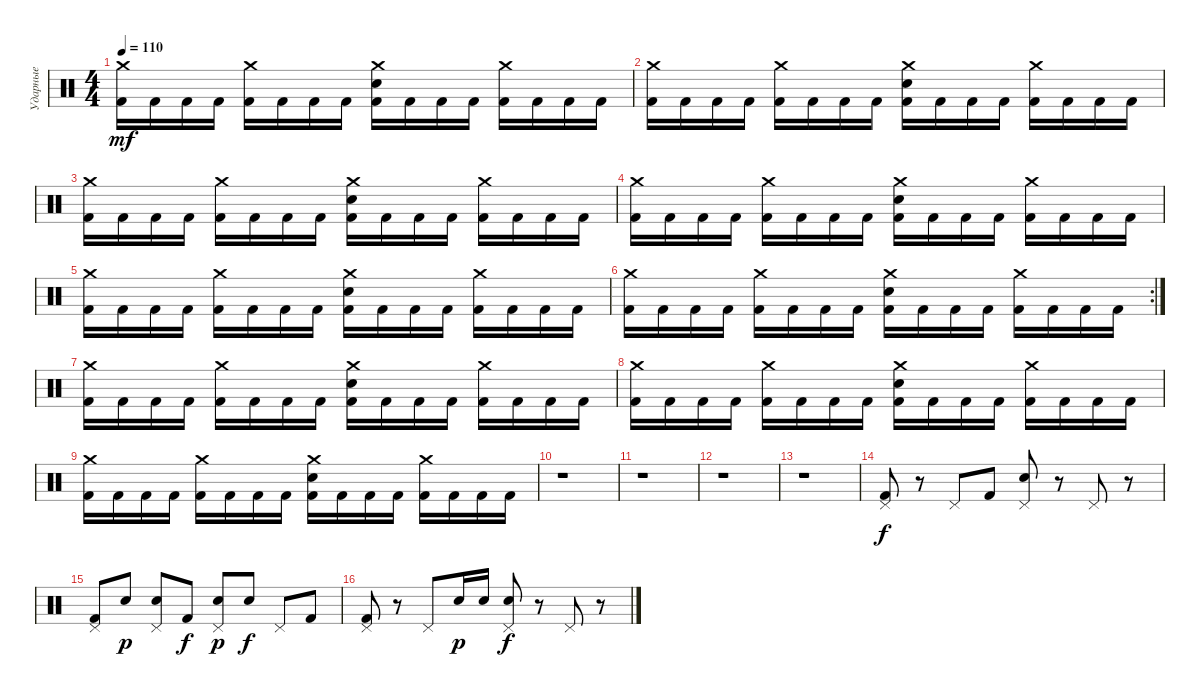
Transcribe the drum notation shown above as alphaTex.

\track ("Ударные" "Ударные") {instrument percussion}
\staff {score}
\articulation defaults
\ts (4 4)
\tempo 110
\clef neutral
\ks c
("Crash medium (hit)" "Kick (hit) 2").16{dy mf} "Kick (hit) 2".16 "Kick (hit) 2".16 "Kick (hit) 2".16 ("Crash medium (hit)" "Kick (hit) 2").16 "Kick (hit) 2".16 "Kick (hit) 2".16 "Kick (hit) 2".16 ("Crash medium (hit)" "Electric Snare (hit)" "Kick (hit) 2").16 "Kick (hit) 2".16 "Kick (hit) 2".16 "Kick (hit) 2".16 ("Crash medium (hit)" "Kick (hit) 2").16 "Kick (hit) 2".16 "Kick (hit) 2".16 "Kick (hit) 2".16 |
("Crash medium (hit)" "Kick (hit) 2").16 "Kick (hit) 2".16 "Kick (hit) 2".16 "Kick (hit) 2".16 ("Crash medium (hit)" "Kick (hit) 2").16 "Kick (hit) 2".16 "Kick (hit) 2".16 "Kick (hit) 2".16 ("Crash medium (hit)" "Electric Snare (hit)" "Kick (hit) 2").16 "Kick (hit) 2".16 "Kick (hit) 2".16 "Kick (hit) 2".16 ("Crash medium (hit)" "Kick (hit) 2").16 "Kick (hit) 2".16 "Kick (hit) 2".16 "Kick (hit) 2".16 |
("Crash medium (hit)" "Kick (hit) 2").16 "Kick (hit) 2".16 "Kick (hit) 2".16 "Kick (hit) 2".16 ("Crash medium (hit)" "Kick (hit) 2").16 "Kick (hit) 2".16 "Kick (hit) 2".16 "Kick (hit) 2".16 ("Crash medium (hit)" "Electric Snare (hit)" "Kick (hit) 2").16 "Kick (hit) 2".16 "Kick (hit) 2".16 "Kick (hit) 2".16 ("Crash medium (hit)" "Kick (hit) 2").16 "Kick (hit) 2".16 "Kick (hit) 2".16 "Kick (hit) 2".16 |
("Crash medium (hit)" "Kick (hit) 2").16 "Kick (hit) 2".16 "Kick (hit) 2".16 "Kick (hit) 2".16 ("Crash medium (hit)" "Kick (hit) 2").16 "Kick (hit) 2".16 "Kick (hit) 2".16 "Kick (hit) 2".16 ("Crash medium (hit)" "Electric Snare (hit)" "Kick (hit) 2").16 "Kick (hit) 2".16 "Kick (hit) 2".16 "Kick (hit) 2".16 ("Crash medium (hit)" "Kick (hit) 2").16 "Kick (hit) 2".16 "Kick (hit) 2".16 "Kick (hit) 2".16 |
("Crash medium (hit)" "Kick (hit) 2").16 "Kick (hit) 2".16 "Kick (hit) 2".16 "Kick (hit) 2".16 ("Crash medium (hit)" "Kick (hit) 2").16 "Kick (hit) 2".16 "Kick (hit) 2".16 "Kick (hit) 2".16 ("Crash medium (hit)" "Electric Snare (hit)" "Kick (hit) 2").16 "Kick (hit) 2".16 "Kick (hit) 2".16 "Kick (hit) 2".16 ("Crash medium (hit)" "Kick (hit) 2").16 "Kick (hit) 2".16 "Kick (hit) 2".16 "Kick (hit) 2".16 |
\rc 2
("Crash medium (hit)" "Kick (hit) 2").16 "Kick (hit) 2".16 "Kick (hit) 2".16 "Kick (hit) 2".16 ("Crash medium (hit)" "Kick (hit) 2").16 "Kick (hit) 2".16 "Kick (hit) 2".16 "Kick (hit) 2".16 ("Crash medium (hit)" "Electric Snare (hit)" "Kick (hit) 2").16 "Kick (hit) 2".16 "Kick (hit) 2".16 "Kick (hit) 2".16 ("Crash medium (hit)" "Kick (hit) 2").16 "Kick (hit) 2".16 "Kick (hit) 2".16 "Kick (hit) 2".16 |
("Crash medium (hit)" "Kick (hit) 2").16 "Kick (hit) 2".16 "Kick (hit) 2".16 "Kick (hit) 2".16 ("Crash medium (hit)" "Kick (hit) 2").16 "Kick (hit) 2".16 "Kick (hit) 2".16 "Kick (hit) 2".16 ("Crash medium (hit)" "Electric Snare (hit)" "Kick (hit) 2").16 "Kick (hit) 2".16 "Kick (hit) 2".16 "Kick (hit) 2".16 ("Crash medium (hit)" "Kick (hit) 2").16 "Kick (hit) 2".16 "Kick (hit) 2".16 "Kick (hit) 2".16 |
("Crash medium (hit)" "Kick (hit) 2").16 "Kick (hit) 2".16 "Kick (hit) 2".16 "Kick (hit) 2".16 ("Crash medium (hit)" "Kick (hit) 2").16 "Kick (hit) 2".16 "Kick (hit) 2".16 "Kick (hit) 2".16 ("Crash medium (hit)" "Electric Snare (hit)" "Kick (hit) 2").16 "Kick (hit) 2".16 "Kick (hit) 2".16 "Kick (hit) 2".16 ("Crash medium (hit)" "Kick (hit) 2").16 "Kick (hit) 2".16 "Kick (hit) 2".16 "Kick (hit) 2".16 |
("Crash medium (hit)" "Kick (hit) 2").16 "Kick (hit) 2".16 "Kick (hit) 2".16 "Kick (hit) 2".16 ("Crash medium (hit)" "Kick (hit) 2").16 "Kick (hit) 2".16 "Kick (hit) 2".16 "Kick (hit) 2".16 ("Crash medium (hit)" "Electric Snare (hit)" "Kick (hit) 2").16 "Kick (hit) 2".16 "Kick (hit) 2".16 "Kick (hit) 2".16 ("Crash medium (hit)" "Kick (hit) 2").16 "Kick (hit) 2".16 "Kick (hit) 2".16 "Kick (hit) 2".16 |
r.1 |
r.1 |
r.1 |
r.1 |
("Pedal Hi-Hat (hit)" "Kick (hit) 2").8{dy f volume 13} r.8 "Pedal Hi-Hat (hit)".8 "Kick (hit) 2".8 ("Pedal Hi-Hat (hit)" "Electric Snare (hit)").8 r.8 "Pedal Hi-Hat (hit)".8 r.8 |
("Pedal Hi-Hat (hit)" "Kick (hit) 2").8{volume 13} "Electric Snare (hit)".8{dy p} ("Pedal Hi-Hat (hit)" "Electric Snare (hit)").8 "Kick (hit) 2".8{dy f} ("Pedal Hi-Hat (hit)" "Electric Snare (hit)").8{dy p} "Electric Snare (hit)".8{dy f} "Pedal Hi-Hat (hit)".8 "Kick (hit) 2".8 |
("Pedal Hi-Hat (hit)" "Kick (hit) 2").8{volume 13} r.8 "Pedal Hi-Hat (hit)".8 "Electric Snare (hit)".16{dy p} "Electric Snare (hit)".16 ("Pedal Hi-Hat (hit)" "Electric Snare (hit)").8{dy f} r.8 "Pedal Hi-Hat (hit)".8 r.8
